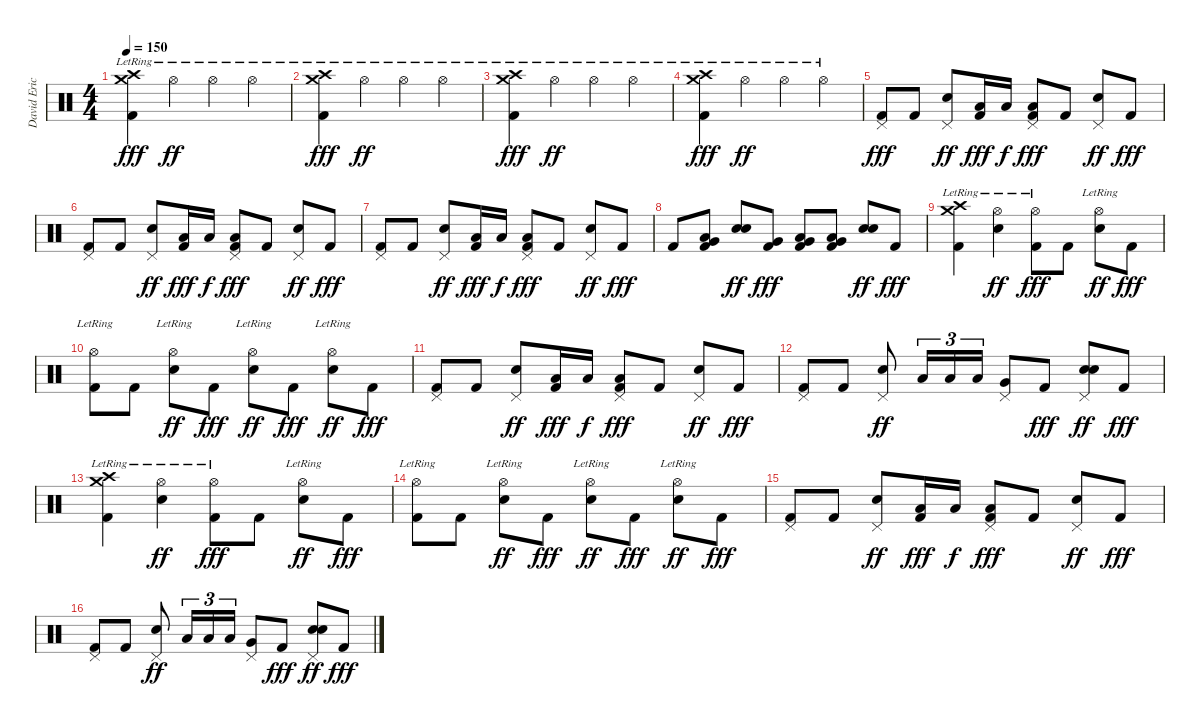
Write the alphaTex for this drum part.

\track ("David Eric Grohl" "David Eric") {instrument percussion}
\staff {score}
\articulation defaults
\ts (4 4)
\tempo 150
\clef neutral
\ks c
("Crash medium (hit)"{lr} "Crash high (hit)"{lr} "Kick (hit) 2").4{dy fff} "Hi-Hat (open)"{lr}.4{dy ff} "Hi-Hat (open)"{lr}.4 "Hi-Hat (open)"{lr}.4 |
("Crash medium (hit)"{lr} "Crash high (hit)"{lr} "Kick (hit) 2").4{dy fff} "Hi-Hat (open)"{lr}.4{dy ff} "Hi-Hat (open)"{lr}.4 "Hi-Hat (open)"{lr}.4 |
("Crash medium (hit)"{lr} "Crash high (hit)"{lr} "Kick (hit) 2").4{dy fff} "Hi-Hat (open)"{lr}.4{dy ff} "Hi-Hat (open)"{lr}.4 "Hi-Hat (open)"{lr}.4 |
("Crash medium (hit)"{lr} "Crash high (hit)"{lr} "Kick (hit) 2").4{dy fff} "Hi-Hat (open)"{lr}.4{dy ff} "Hi-Hat (open)"{lr}.4 "Hi-Hat (open)"{lr}.4 |
("Pedal Hi-Hat (hit)" "Kick (hit) 2").8{dy fff} "Kick (hit) 2".8 ("Pedal Hi-Hat (hit)" "Electric Snare (hit)").8{dy ff} ("Low Tom (hit)" "Kick (hit) 2").16{dy fff} "Low Tom (hit)".16{dy f} ("Pedal Hi-Hat (hit)" "Low Tom (hit)" "Kick (hit) 2").8{dy fff} "Kick (hit) 2".8 ("Pedal Hi-Hat (hit)" "Electric Snare (hit)").8{dy ff} "Kick (hit) 2".8{dy fff} |
("Pedal Hi-Hat (hit)" "Kick (hit) 2").8 "Kick (hit) 2".8 ("Pedal Hi-Hat (hit)" "Electric Snare (hit)").8{dy ff} ("Low Tom (hit)" "Kick (hit) 2").16{dy fff} "Low Tom (hit)".16{dy f} ("Pedal Hi-Hat (hit)" "Low Tom (hit)" "Kick (hit) 2").8{dy fff} "Kick (hit) 2".8 ("Pedal Hi-Hat (hit)" "Electric Snare (hit)").8{dy ff} "Kick (hit) 2".8{dy fff} |
("Pedal Hi-Hat (hit)" "Kick (hit) 2").8 "Kick (hit) 2".8 ("Pedal Hi-Hat (hit)" "Electric Snare (hit)").8{dy ff} ("Low Tom (hit)" "Kick (hit) 2").16{dy fff} "Low Tom (hit)".16{dy f} ("Pedal Hi-Hat (hit)" "Low Tom (hit)" "Kick (hit) 2").8{dy fff} "Kick (hit) 2".8 ("Pedal Hi-Hat (hit)" "Electric Snare (hit)").8{dy ff} "Kick (hit) 2".8{dy fff} |
"Kick (hit) 2".8 ("Low Tom (hit)" "Very Low Tom (hit)" "Kick (hit) 2").8 ("Electric Snare (hit)" "Electric Snare (hit)").8{dy ff} ("Very Low Tom (hit)" "Kick (hit) 2").8{dy fff} ("Low Tom (hit)" "Very Low Tom (hit)" "Kick (hit) 2").8 ("Low Tom (hit)" "Very Low Tom (hit)" "Kick (hit) 2").8 ("Electric Snare (hit)" "Electric Snare (hit)").8{dy ff} "Kick (hit) 2".8{dy fff} |
("Crash medium (hit)"{lr} "Crash high (hit)"{lr} "Kick (hit) 2").4 ("Hi-Hat (open)"{lr} "Electric Snare (hit)").4{dy ff} ("Hi-Hat (open)"{lr} "Kick (hit) 2").8{dy fff} "Kick (hit) 2".8 ("Hi-Hat (open)"{lr} "Electric Snare (hit)").8{dy ff} "Kick (hit) 2".8{dy fff} |
("Hi-Hat (open)"{lr} "Kick (hit) 2").8 "Kick (hit) 2".8 ("Hi-Hat (open)"{lr} "Electric Snare (hit)").8{dy ff} "Kick (hit) 2".8{dy fff} ("Hi-Hat (open)"{lr} "Electric Snare (hit)").8{dy ff} "Kick (hit) 2".8{dy fff} ("Hi-Hat (open)"{lr} "Electric Snare (hit)").8{dy ff} "Kick (hit) 2".8{dy fff} |
("Pedal Hi-Hat (hit)" "Kick (hit) 2").8 "Kick (hit) 2".8 ("Pedal Hi-Hat (hit)" "Electric Snare (hit)").8{dy ff} ("Low Tom (hit)" "Kick (hit) 2").16{dy fff} "Low Tom (hit)".16{dy f} ("Pedal Hi-Hat (hit)" "Low Tom (hit)" "Kick (hit) 2").8{dy fff} "Kick (hit) 2".8 ("Pedal Hi-Hat (hit)" "Electric Snare (hit)").8{dy ff} "Kick (hit) 2".8{dy fff} |
("Pedal Hi-Hat (hit)" "Kick (hit) 2").8 "Kick (hit) 2".8 ("Pedal Hi-Hat (hit)" "Electric Snare (hit)").8{dy ff} "Low Tom (hit)".16{tu (3 2)} "Low Tom (hit)".16{tu (3 2)} "Low Tom (hit)".16{tu (3 2)} ("Pedal Hi-Hat (hit)" "Very Low Tom (hit)").8 "Kick (hit) 2".8{dy fff} ("Pedal Hi-Hat (hit)" "Electric Snare (hit)" "Electric Snare (hit)").8{dy ff} "Kick (hit) 2".8{dy fff} |
("Crash medium (hit)"{lr} "Crash high (hit)"{lr} "Kick (hit) 2").4 ("Hi-Hat (open)"{lr} "Electric Snare (hit)").4{dy ff} ("Hi-Hat (open)"{lr} "Kick (hit) 2").8{dy fff} "Kick (hit) 2".8 ("Hi-Hat (open)"{lr} "Electric Snare (hit)").8{dy ff} "Kick (hit) 2".8{dy fff} |
("Hi-Hat (open)"{lr} "Kick (hit) 2").8 "Kick (hit) 2".8 ("Hi-Hat (open)"{lr} "Electric Snare (hit)").8{dy ff} "Kick (hit) 2".8{dy fff} ("Hi-Hat (open)"{lr} "Electric Snare (hit)").8{dy ff} "Kick (hit) 2".8{dy fff} ("Hi-Hat (open)"{lr} "Electric Snare (hit)").8{dy ff} "Kick (hit) 2".8{dy fff} |
("Pedal Hi-Hat (hit)" "Kick (hit) 2").8 "Kick (hit) 2".8 ("Pedal Hi-Hat (hit)" "Electric Snare (hit)").8{dy ff} ("Low Tom (hit)" "Kick (hit) 2").16{dy fff} "Low Tom (hit)".16{dy f} ("Pedal Hi-Hat (hit)" "Low Tom (hit)" "Kick (hit) 2").8{dy fff} "Kick (hit) 2".8 ("Pedal Hi-Hat (hit)" "Electric Snare (hit)").8{dy ff} "Kick (hit) 2".8{dy fff} |
("Pedal Hi-Hat (hit)" "Kick (hit) 2").8 "Kick (hit) 2".8 ("Pedal Hi-Hat (hit)" "Electric Snare (hit)").8{dy ff} "Low Tom (hit)".16{tu (3 2)} "Low Tom (hit)".16{tu (3 2)} "Low Tom (hit)".16{tu (3 2)} ("Pedal Hi-Hat (hit)" "Very Low Tom (hit)").8 "Kick (hit) 2".8{dy fff} ("Pedal Hi-Hat (hit)" "Electric Snare (hit)" "Electric Snare (hit)").8{dy ff} "Kick (hit) 2".8{dy fff}
